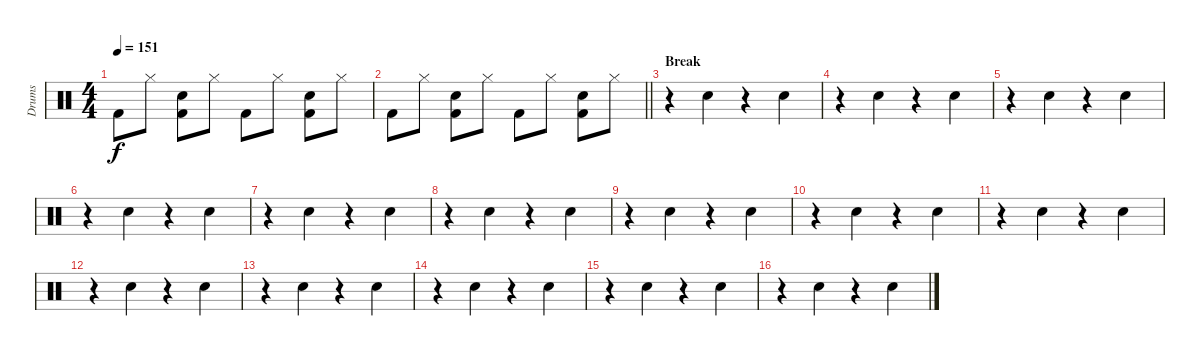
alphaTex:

\track ("Drums" "Drums") {instrument percussion}
\staff {score}
\articulation defaults
\ts (4 4)
\tempo 151
\clef neutral
\ks c "Kick (hit) 2".8{dy f} "Hi-Hat (closed)".8
("Electric Snare (hit)" "Kick (hit) 2").8 "Hi-Hat (closed)".8 "Kick (hit) 2".8 "Hi-Hat (closed)".8 ("Electric Snare (hit)" "Kick (hit) 2").8 "Hi-Hat (closed)".8 |
\barLineRight lightlight "Kick (hit) 2".8 "Hi-Hat (closed)".8
("Electric Snare (hit)" "Kick (hit) 2").8 "Hi-Hat (closed)".8 "Kick (hit) 2".8 "Hi-Hat (closed)".8 ("Electric Snare (hit)" "Kick (hit) 2").8 "Hi-Hat (closed)".8 |
\section ("" "Break")
r.4 "Electric Snare (hit)".4 r.4 "Electric Snare (hit)".4 |
r.4 "Electric Snare (hit)".4 r.4 "Electric Snare (hit)".4 |
r.4 "Electric Snare (hit)".4 r.4 "Electric Snare (hit)".4 |
r.4 "Electric Snare (hit)".4 r.4 "Electric Snare (hit)".4 |
r.4 "Electric Snare (hit)".4 r.4 "Electric Snare (hit)".4 |
r.4 "Electric Snare (hit)".4 r.4 "Electric Snare (hit)".4 |
r.4 "Electric Snare (hit)".4 r.4 "Electric Snare (hit)".4 |
r.4 "Electric Snare (hit)".4 r.4 "Electric Snare (hit)".4 |
r.4 "Electric Snare (hit)".4 r.4 "Electric Snare (hit)".4 |
r.4 "Electric Snare (hit)".4 r.4 "Electric Snare (hit)".4 |
r.4 "Electric Snare (hit)".4 r.4 "Electric Snare (hit)".4 |
r.4 "Electric Snare (hit)".4 r.4 "Electric Snare (hit)".4 |
r.4 "Electric Snare (hit)".4 r.4 "Electric Snare (hit)".4 |
r.4 "Electric Snare (hit)".4 r.4 "Electric Snare (hit)".4
